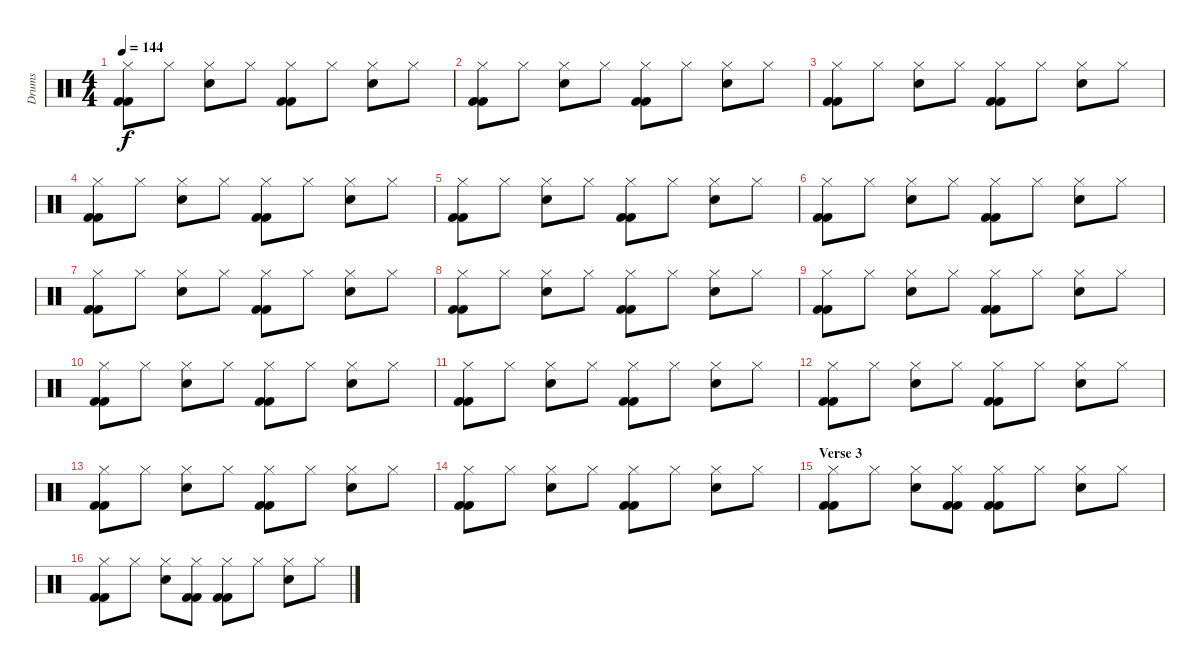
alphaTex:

\track ("Drums" "Drums") {instrument percussion}
\staff {score}
\articulation defaults
\ts (4 4)
\tempo 144
\clef neutral
\ks c
("Kick (hit) 2" "Kick (hit) 2" "Hi-Hat (closed)").8{dy f} "Hi-Hat (closed)".8 ("Snare (hit) 2" "Hi-Hat (closed)").8 "Hi-Hat (closed)".8 ("Kick (hit) 2" "Kick (hit) 2" "Hi-Hat (closed)").8 "Hi-Hat (closed)".8 ("Snare (hit) 2" "Hi-Hat (closed)").8 "Hi-Hat (closed)".8 |
("Kick (hit) 2" "Kick (hit) 2" "Hi-Hat (closed)").8 "Hi-Hat (closed)".8 ("Snare (hit) 2" "Hi-Hat (closed)").8 "Hi-Hat (closed)".8 ("Kick (hit) 2" "Kick (hit) 2" "Hi-Hat (closed)").8 "Hi-Hat (closed)".8 ("Snare (hit) 2" "Hi-Hat (closed)").8 "Hi-Hat (closed)".8 |
("Kick (hit) 2" "Kick (hit) 2" "Hi-Hat (closed)").8 "Hi-Hat (closed)".8 ("Snare (hit) 2" "Hi-Hat (closed)").8 "Hi-Hat (closed)".8 ("Kick (hit) 2" "Kick (hit) 2" "Hi-Hat (closed)").8 "Hi-Hat (closed)".8 ("Snare (hit) 2" "Hi-Hat (closed)").8 "Hi-Hat (closed)".8 |
("Kick (hit) 2" "Kick (hit) 2" "Hi-Hat (closed)").8 "Hi-Hat (closed)".8 ("Snare (hit) 2" "Hi-Hat (closed)").8 "Hi-Hat (closed)".8 ("Kick (hit) 2" "Kick (hit) 2" "Hi-Hat (closed)").8 "Hi-Hat (closed)".8 ("Snare (hit) 2" "Hi-Hat (closed)").8 "Hi-Hat (closed)".8 |
("Kick (hit) 2" "Kick (hit) 2" "Hi-Hat (closed)").8 "Hi-Hat (closed)".8 ("Snare (hit) 2" "Hi-Hat (closed)").8 "Hi-Hat (closed)".8 ("Kick (hit) 2" "Kick (hit) 2" "Hi-Hat (closed)").8 "Hi-Hat (closed)".8 ("Snare (hit) 2" "Hi-Hat (closed)").8 "Hi-Hat (closed)".8 |
("Kick (hit) 2" "Kick (hit) 2" "Hi-Hat (closed)").8 "Hi-Hat (closed)".8 ("Snare (hit) 2" "Hi-Hat (closed)").8 "Hi-Hat (closed)".8 ("Kick (hit) 2" "Kick (hit) 2" "Hi-Hat (closed)").8 "Hi-Hat (closed)".8 ("Snare (hit) 2" "Hi-Hat (closed)").8 "Hi-Hat (closed)".8 |
("Kick (hit) 2" "Kick (hit) 2" "Hi-Hat (closed)").8 "Hi-Hat (closed)".8 ("Snare (hit) 2" "Hi-Hat (closed)").8 "Hi-Hat (closed)".8 ("Kick (hit) 2" "Kick (hit) 2" "Hi-Hat (closed)").8 "Hi-Hat (closed)".8 ("Snare (hit) 2" "Hi-Hat (closed)").8 "Hi-Hat (closed)".8 |
("Kick (hit) 2" "Kick (hit) 2" "Hi-Hat (closed)").8 "Hi-Hat (closed)".8 ("Snare (hit) 2" "Hi-Hat (closed)").8 "Hi-Hat (closed)".8 ("Kick (hit) 2" "Kick (hit) 2" "Hi-Hat (closed)").8 "Hi-Hat (closed)".8 ("Snare (hit) 2" "Hi-Hat (closed)").8 "Hi-Hat (closed)".8 |
("Kick (hit) 2" "Kick (hit) 2" "Hi-Hat (closed)").8 "Hi-Hat (closed)".8 ("Snare (hit) 2" "Hi-Hat (closed)").8 "Hi-Hat (closed)".8 ("Kick (hit) 2" "Kick (hit) 2" "Hi-Hat (closed)").8 "Hi-Hat (closed)".8 ("Snare (hit) 2" "Hi-Hat (closed)").8 "Hi-Hat (closed)".8 |
("Kick (hit) 2" "Kick (hit) 2" "Hi-Hat (closed)").8 "Hi-Hat (closed)".8 ("Snare (hit) 2" "Hi-Hat (closed)").8 "Hi-Hat (closed)".8 ("Kick (hit) 2" "Kick (hit) 2" "Hi-Hat (closed)").8 "Hi-Hat (closed)".8 ("Snare (hit) 2" "Hi-Hat (closed)").8 "Hi-Hat (closed)".8 |
("Kick (hit) 2" "Kick (hit) 2" "Hi-Hat (closed)").8 "Hi-Hat (closed)".8 ("Snare (hit) 2" "Hi-Hat (closed)").8 "Hi-Hat (closed)".8 ("Kick (hit) 2" "Kick (hit) 2" "Hi-Hat (closed)").8 "Hi-Hat (closed)".8 ("Snare (hit) 2" "Hi-Hat (closed)").8 "Hi-Hat (closed)".8 |
("Kick (hit) 2" "Kick (hit) 2" "Hi-Hat (closed)").8 "Hi-Hat (closed)".8 ("Snare (hit) 2" "Hi-Hat (closed)").8 "Hi-Hat (closed)".8 ("Kick (hit) 2" "Kick (hit) 2" "Hi-Hat (closed)").8 "Hi-Hat (closed)".8 ("Snare (hit) 2" "Hi-Hat (closed)").8 "Hi-Hat (closed)".8 |
("Kick (hit) 2" "Kick (hit) 2" "Hi-Hat (closed)").8 "Hi-Hat (closed)".8 ("Snare (hit) 2" "Hi-Hat (closed)").8 "Hi-Hat (closed)".8 ("Kick (hit) 2" "Kick (hit) 2" "Hi-Hat (closed)").8 "Hi-Hat (closed)".8 ("Snare (hit) 2" "Hi-Hat (closed)").8 "Hi-Hat (closed)".8 |
("Kick (hit) 2" "Kick (hit) 2" "Hi-Hat (closed)").8 "Hi-Hat (closed)".8 ("Snare (hit) 2" "Hi-Hat (closed)").8 "Hi-Hat (closed)".8 ("Kick (hit) 2" "Kick (hit) 2" "Hi-Hat (closed)").8 "Hi-Hat (closed)".8 ("Snare (hit) 2" "Hi-Hat (closed)").8 "Hi-Hat (closed)".8 |
\section ("" "Verse 3")
("Kick (hit) 2" "Kick (hit) 2" "Hi-Hat (closed)").8 "Hi-Hat (closed)".8 ("Snare (hit) 2" "Hi-Hat (closed)").8 ("Kick (hit) 2" "Kick (hit) 2" "Hi-Hat (closed)").8 ("Kick (hit) 2" "Kick (hit) 2" "Hi-Hat (closed)").8 "Hi-Hat (closed)".8 ("Snare (hit) 2" "Hi-Hat (closed)").8 "Hi-Hat (closed)".8 |
("Kick (hit) 2" "Kick (hit) 2" "Hi-Hat (closed)").8 "Hi-Hat (closed)".8 ("Snare (hit) 2" "Hi-Hat (closed)").8 ("Kick (hit) 2" "Kick (hit) 2" "Hi-Hat (closed)").8 ("Kick (hit) 2" "Kick (hit) 2" "Hi-Hat (closed)").8 "Hi-Hat (closed)".8 ("Snare (hit) 2" "Hi-Hat (closed)").8 "Hi-Hat (closed)".8
